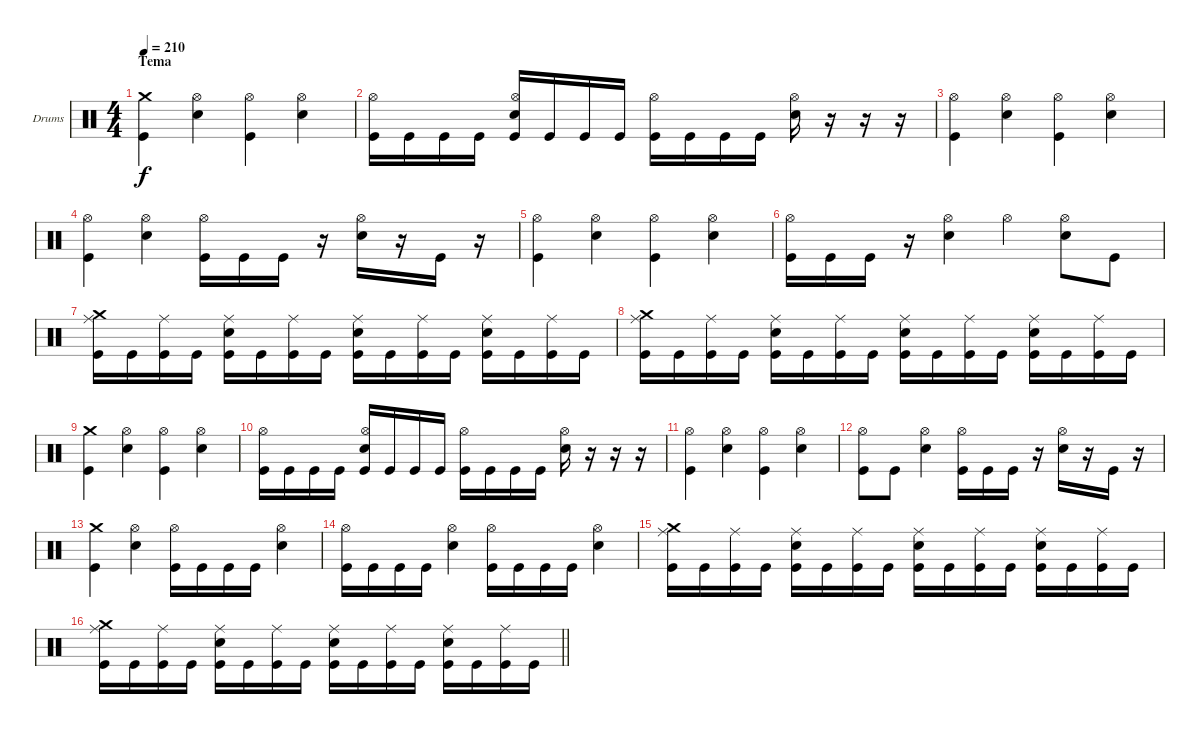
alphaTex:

\bracketExtendMode groupsimilarinstruments
\firstSystemTrackNameOrientation horizontal
\otherSystemsTrackNameOrientation horizontal
\track ("Drumkit" "Drums") {instrument percussion}
\staff {score}
\articulation defaults
\ts (4 4)
\section ("" "Tema")
\tempo 210
\clef neutral
\ks c
("Crash medium (hit)" "Kick (hit)").4{dy f} ("Hi-Hat (open)" "Snare (hit) 2").4 ("Hi-Hat (open)" "Kick (hit)").4 ("Hi-Hat (open)" "Snare (hit) 2").4 |
("Hi-Hat (open)" "Kick (hit)").16 "Kick (hit)".16 "Kick (hit)".16 "Kick (hit)".16 ("Hi-Hat (open)" "Snare (hit) 2" "Kick (hit)").16 "Kick (hit)".16 "Kick (hit)".16 "Kick (hit)".16 ("Hi-Hat (open)" "Kick (hit)").16 "Kick (hit)".16 "Kick (hit)".16 "Kick (hit)".16 ("Hi-Hat (open)" "Snare (hit) 2").16 r.16 r.16 r.16 |
("Hi-Hat (open)" "Kick (hit)").4 ("Hi-Hat (open)" "Snare (hit) 2").4 ("Hi-Hat (open)" "Kick (hit)").4 ("Hi-Hat (open)" "Snare (hit) 2").4 |
("Hi-Hat (open)" "Kick (hit)").4 ("Hi-Hat (open)" "Snare (hit) 2").4 ("Hi-Hat (open)" "Kick (hit)").16 "Kick (hit)".16 "Kick (hit)".16 r.16 ("Hi-Hat (open)" "Snare (hit) 2").16 r.16 "Kick (hit)".16 r.16 |
("Hi-Hat (open)" "Kick (hit)").4 ("Hi-Hat (open)" "Snare (hit) 2").4 ("Hi-Hat (open)" "Kick (hit)").4 ("Hi-Hat (open)" "Snare (hit) 2").4 |
("Hi-Hat (open)" "Kick (hit)").16 "Kick (hit)".16 "Kick (hit)".16 r.16 ("Hi-Hat (open)" "Snare (hit) 2").4 "Hi-Hat (open)".4 ("Hi-Hat (open)" "Snare (hit) 2").8 "Kick (hit)".8 |
("Crash medium (hit)" "Ride (middle)" "Kick (hit)").16 "Kick (hit)".16 ("Ride (middle)" "Kick (hit)").16 "Kick (hit)".16 ("Ride (middle)" "Snare (hit) 2" "Kick (hit)").16 "Kick (hit)".16 ("Ride (middle)" "Kick (hit)").16 "Kick (hit)".16 ("Ride (middle)" "Snare (hit) 2" "Kick (hit)").16 "Kick (hit)".16 ("Ride (middle)" "Kick (hit)").16 "Kick (hit)".16 ("Ride (middle)" "Snare (hit) 2" "Kick (hit)").16 "Kick (hit)".16 ("Ride (middle)" "Kick (hit)").16 "Kick (hit)".16 |
("Crash medium (hit)" "Ride (middle)" "Kick (hit)").16 "Kick (hit)".16 ("Ride (middle)" "Kick (hit)").16 "Kick (hit)".16 ("Ride (middle)" "Snare (hit) 2" "Kick (hit)").16 "Kick (hit)".16 ("Ride (middle)" "Kick (hit)").16 "Kick (hit)".16 ("Ride (middle)" "Snare (hit) 2" "Kick (hit)").16 "Kick (hit)".16 ("Ride (middle)" "Kick (hit)").16 "Kick (hit)".16 ("Ride (middle)" "Snare (hit) 2" "Kick (hit)").16 "Kick (hit)".16 ("Ride (middle)" "Kick (hit)").16 "Kick (hit)".16 |
("Crash medium (hit)" "Kick (hit)").4 ("Hi-Hat (open)" "Snare (hit) 2").4 ("Hi-Hat (open)" "Kick (hit)").4 ("Hi-Hat (open)" "Snare (hit) 2").4 |
("Hi-Hat (open)" "Kick (hit)").16 "Kick (hit)".16 "Kick (hit)".16 "Kick (hit)".16 ("Hi-Hat (open)" "Snare (hit) 2" "Kick (hit)").16 "Kick (hit)".16 "Kick (hit)".16 "Kick (hit)".16 ("Hi-Hat (open)" "Kick (hit)").16 "Kick (hit)".16 "Kick (hit)".16 "Kick (hit)".16 ("Hi-Hat (open)" "Snare (hit) 2").16 r.16 r.16 r.16 |
("Hi-Hat (open)" "Kick (hit)").4 ("Hi-Hat (open)" "Snare (hit) 2").4 ("Hi-Hat (open)" "Kick (hit)").4 ("Hi-Hat (open)" "Snare (hit) 2").4 |
("Hi-Hat (open)" "Kick (hit)").8 "Kick (hit)".8 ("Hi-Hat (open)" "Snare (hit) 2").4 ("Hi-Hat (open)" "Kick (hit)").16 "Kick (hit)".16 "Kick (hit)".16 r.16 ("Hi-Hat (open)" "Snare (hit) 2").16 r.16 "Kick (hit)".16 r.16 |
("Crash medium (hit)" "Kick (hit)").4 ("Hi-Hat (open)" "Snare (hit) 2").4 ("Hi-Hat (open)" "Kick (hit)").16 "Kick (hit)".16 "Kick (hit)".16 "Kick (hit)".16 ("Hi-Hat (open)" "Snare (hit) 2").4 |
("Hi-Hat (open)" "Kick (hit)").16 "Kick (hit)".16 "Kick (hit)".16 "Kick (hit)".16 ("Hi-Hat (open)" "Snare (hit) 2").4 ("Hi-Hat (open)" "Kick (hit)").16 "Kick (hit)".16 "Kick (hit)".16 "Kick (hit)".16 ("Hi-Hat (open)" "Snare (hit) 2").4 |
("Crash medium (hit)" "Ride (middle)" "Kick (hit)").16 "Kick (hit)".16 ("Ride (middle)" "Kick (hit)").16 "Kick (hit)".16 ("Ride (middle)" "Snare (hit) 2" "Kick (hit)").16 "Kick (hit)".16 ("Ride (middle)" "Kick (hit)").16 "Kick (hit)".16 ("Ride (middle)" "Snare (hit) 2" "Kick (hit)").16 "Kick (hit)".16 ("Ride (middle)" "Kick (hit)").16 "Kick (hit)".16 ("Ride (middle)" "Snare (hit) 2" "Kick (hit)").16 "Kick (hit)".16 ("Ride (middle)" "Kick (hit)").16 "Kick (hit)".16 |
\barLineRight lightlight
("Crash medium (hit)" "Ride (middle)" "Kick (hit)").16 "Kick (hit)".16 ("Ride (middle)" "Kick (hit)").16 "Kick (hit)".16 ("Ride (middle)" "Snare (hit) 2" "Kick (hit)").16 "Kick (hit)".16 ("Ride (middle)" "Kick (hit)").16 "Kick (hit)".16 ("Ride (middle)" "Snare (hit) 2" "Kick (hit)").16 "Kick (hit)".16 ("Ride (middle)" "Kick (hit)").16 "Kick (hit)".16 ("Ride (middle)" "Snare (hit) 2" "Kick (hit)").16 "Kick (hit)".16 ("Ride (middle)" "Kick (hit)").16 "Kick (hit)".16
